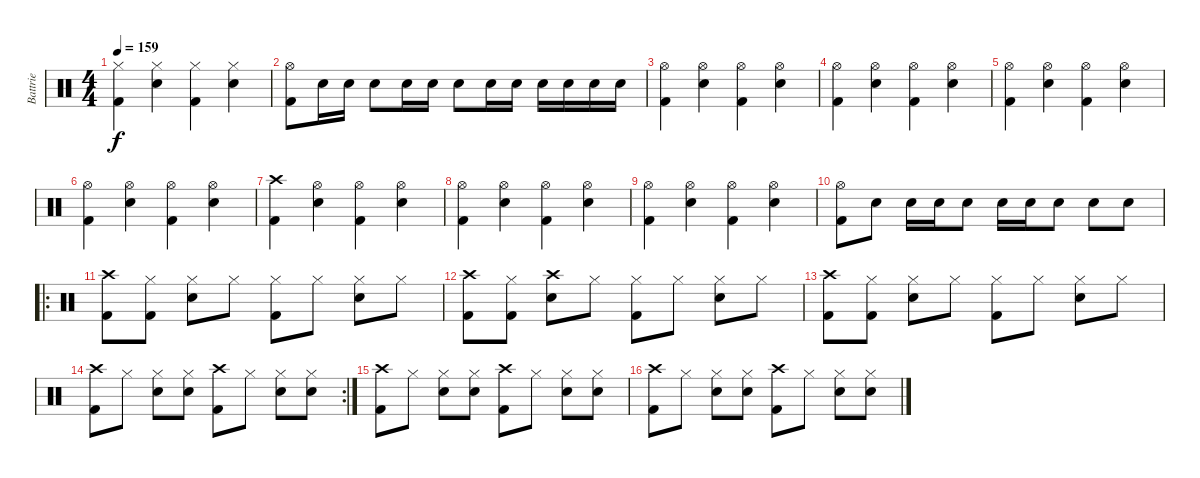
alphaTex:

\track ("Battrie" "Battrie") {instrument percussion}
\staff {score}
\articulation defaults
\ts (4 4)
\tempo 159
\clef neutral
\ks c
("Hi-Hat (closed)" "Kick (hit) 2").4{dy f} ("Hi-Hat (closed)" "Snare (hit) 2").4 ("Hi-Hat (closed)" "Kick (hit) 2").4 ("Hi-Hat (closed)" "Snare (hit) 2").4 |
("Hi-Hat (open)" "Kick (hit) 2").8 "Snare (hit) 2".16 "Snare (hit) 2".16 "Snare (hit) 2".8 "Snare (hit) 2".16 "Snare (hit) 2".16 "Snare (hit) 2".8 "Snare (hit) 2".16 "Snare (hit) 2".16 "Snare (hit) 2".16 "Snare (hit) 2".16 "Snare (hit) 2".16 "Snare (hit) 2".16 |
("Hi-Hat (open)" "Kick (hit) 2").4 ("Hi-Hat (open)" "Snare (hit) 2").4 ("Hi-Hat (open)" "Kick (hit) 2").4 ("Hi-Hat (open)" "Snare (hit) 2").4 |
("Hi-Hat (open)" "Kick (hit) 2").4 ("Hi-Hat (open)" "Snare (hit) 2").4 ("Hi-Hat (open)" "Kick (hit) 2").4 ("Hi-Hat (open)" "Snare (hit) 2").4 |
("Hi-Hat (open)" "Kick (hit) 2").4 ("Hi-Hat (open)" "Snare (hit) 2").4 ("Hi-Hat (open)" "Kick (hit) 2").4 ("Hi-Hat (open)" "Snare (hit) 2").4 |
("Hi-Hat (open)" "Kick (hit) 2").4 ("Hi-Hat (open)" "Snare (hit) 2").4 ("Hi-Hat (open)" "Kick (hit) 2").4 ("Hi-Hat (open)" "Snare (hit) 2").4 |
("Crash high (hit)" "Kick (hit) 2").4 ("Hi-Hat (open)" "Snare (hit) 2").4 ("Hi-Hat (open)" "Kick (hit) 2").4 ("Hi-Hat (open)" "Snare (hit) 2").4 |
("Hi-Hat (open)" "Kick (hit) 2").4 ("Hi-Hat (open)" "Snare (hit) 2").4 ("Hi-Hat (open)" "Kick (hit) 2").4 ("Hi-Hat (open)" "Snare (hit) 2").4 |
("Hi-Hat (open)" "Kick (hit) 2").4 ("Hi-Hat (open)" "Snare (hit) 2").4 ("Hi-Hat (open)" "Kick (hit) 2").4 ("Hi-Hat (open)" "Snare (hit) 2").4 |
("Hi-Hat (open)" "Kick (hit) 2").8 "Snare (hit) 2".8 "Snare (hit) 2".16 "Snare (hit) 2".16 "Snare (hit) 2".8 "Snare (hit) 2".16 "Snare (hit) 2".16 "Snare (hit) 2".8 "Snare (hit) 2".8 "Snare (hit) 2".8 |
\ro
("Crash high (hit)" "Kick (hit) 2").8 ("Hi-Hat (closed)" "Kick (hit) 2").8 ("Hi-Hat (closed)" "Snare (hit) 2").8 "Hi-Hat (closed)".8 ("Hi-Hat (closed)" "Kick (hit) 2").8 "Hi-Hat (closed)".8 ("Hi-Hat (closed)" "Snare (hit) 2").8 "Hi-Hat (closed)".8 |
("Crash high (hit)" "Kick (hit) 2").8 ("Hi-Hat (closed)" "Kick (hit) 2").8 ("Crash high (hit)" "Snare (hit) 2").8 "Hi-Hat (closed)".8 ("Hi-Hat (closed)" "Kick (hit) 2").8 "Hi-Hat (closed)".8 ("Hi-Hat (closed)" "Snare (hit) 2").8 "Hi-Hat (closed)".8 |
("Crash high (hit)" "Kick (hit) 2").8 ("Hi-Hat (closed)" "Kick (hit) 2").8 ("Hi-Hat (closed)" "Snare (hit) 2").8 "Hi-Hat (closed)".8 ("Hi-Hat (closed)" "Kick (hit) 2").8 "Hi-Hat (closed)".8 ("Hi-Hat (closed)" "Snare (hit) 2").8 "Hi-Hat (closed)".8 |
\rc 2
("Crash high (hit)" "Kick (hit) 2").8 "Hi-Hat (closed)".8 ("Hi-Hat (closed)" "Snare (hit) 2").8 ("Hi-Hat (closed)" "Snare (hit) 2").8 ("Crash high (hit)" "Kick (hit) 2").8 "Hi-Hat (closed)".8 ("Hi-Hat (closed)" "Snare (hit) 2").8 ("Hi-Hat (closed)" "Snare (hit) 2").8 |
("Crash high (hit)" "Kick (hit) 2").8 "Hi-Hat (closed)".8 ("Hi-Hat (closed)" "Snare (hit) 2").8 ("Hi-Hat (closed)" "Snare (hit) 2").8 ("Crash high (hit)" "Kick (hit) 2").8 "Hi-Hat (closed)".8 ("Hi-Hat (closed)" "Snare (hit) 2").8 ("Hi-Hat (closed)" "Snare (hit) 2").8 |
("Crash high (hit)" "Kick (hit) 2").8 "Hi-Hat (closed)".8 ("Hi-Hat (closed)" "Snare (hit) 2").8 ("Hi-Hat (closed)" "Snare (hit) 2").8 ("Crash high (hit)" "Kick (hit) 2").8 "Hi-Hat (closed)".8 ("Hi-Hat (closed)" "Snare (hit) 2").8 ("Hi-Hat (closed)" "Snare (hit) 2").8
